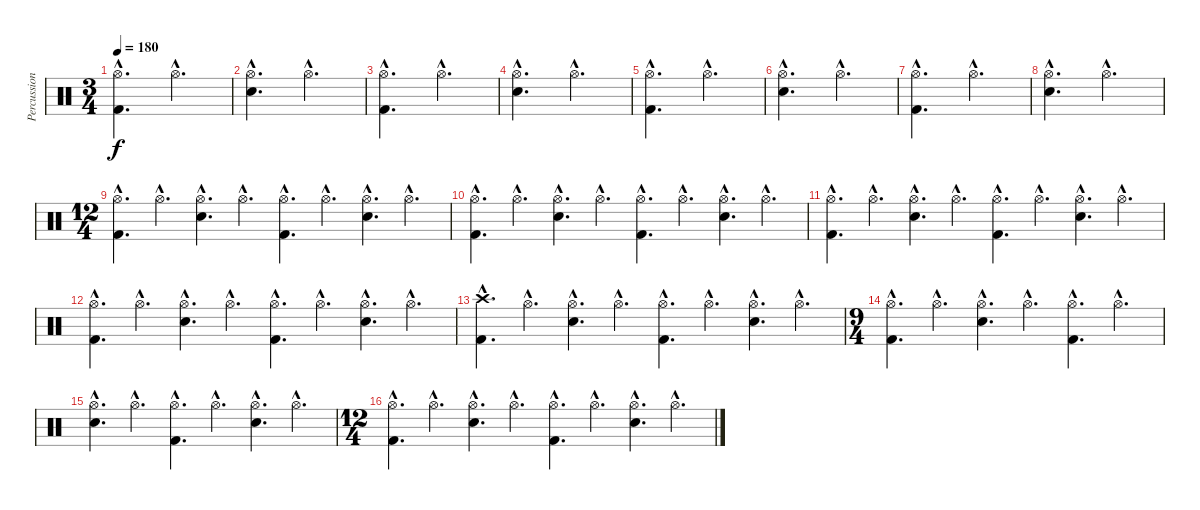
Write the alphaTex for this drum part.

\track ("Percussion" "Percussion") {instrument percussion}
\staff {score}
\articulation defaults
\ts (3 4)
\tempo 180
\clef neutral
\ks c
("Hi-Hat (open)"{hac} "Kick (hit) 2"{hac}).4{d dy f} "Hi-Hat (open)"{hac}.4{d} |
("Hi-Hat (open)"{hac} "Electric Snare (hit)"{hac}).4{d} "Hi-Hat (open)"{hac}.4{d} |
("Hi-Hat (open)"{hac} "Kick (hit) 2"{hac}).4{d} "Hi-Hat (open)"{hac}.4{d} |
("Hi-Hat (open)"{hac} "Electric Snare (hit)"{hac}).4{d} "Hi-Hat (open)"{hac}.4{d} |
("Hi-Hat (open)"{hac} "Kick (hit) 2"{hac}).4{d} "Hi-Hat (open)"{hac}.4{d} |
("Hi-Hat (open)"{hac} "Electric Snare (hit)"{hac}).4{d} "Hi-Hat (open)"{hac}.4{d} |
("Hi-Hat (open)"{hac} "Kick (hit) 2"{hac}).4{d} "Hi-Hat (open)"{hac}.4{d} |
("Hi-Hat (open)"{hac} "Electric Snare (hit)"{hac}).4{d} "Hi-Hat (open)"{hac}.4{d} |
\ts (12 4)
("Hi-Hat (open)"{hac} "Kick (hit) 2"{hac}).4{d} "Hi-Hat (open)"{hac}.4{d} ("Hi-Hat (open)"{hac} "Electric Snare (hit)"{hac}).4{d} "Hi-Hat (open)"{hac}.4{d} ("Hi-Hat (open)"{hac} "Kick (hit) 2"{hac}).4{d} "Hi-Hat (open)"{hac}.4{d} ("Hi-Hat (open)"{hac} "Electric Snare (hit)"{hac}).4{d} "Hi-Hat (open)"{hac}.4{d} |
("Hi-Hat (open)"{hac} "Kick (hit) 2"{hac}).4{d} "Hi-Hat (open)"{hac}.4{d} ("Hi-Hat (open)"{hac} "Electric Snare (hit)"{hac}).4{d} "Hi-Hat (open)"{hac}.4{d} ("Hi-Hat (open)"{hac} "Kick (hit) 2"{hac}).4{d} "Hi-Hat (open)"{hac}.4{d} ("Hi-Hat (open)"{hac} "Electric Snare (hit)"{hac}).4{d} "Hi-Hat (open)"{hac}.4{d} |
("Hi-Hat (open)"{hac} "Kick (hit) 2"{hac}).4{d} "Hi-Hat (open)"{hac}.4{d} ("Hi-Hat (open)"{hac} "Electric Snare (hit)"{hac}).4{d} "Hi-Hat (open)"{hac}.4{d} ("Hi-Hat (open)"{hac} "Kick (hit) 2"{hac}).4{d} "Hi-Hat (open)"{hac}.4{d} ("Hi-Hat (open)"{hac} "Electric Snare (hit)"{hac}).4{d} "Hi-Hat (open)"{hac}.4{d} |
("Hi-Hat (open)"{hac} "Kick (hit) 2"{hac}).4{d} "Hi-Hat (open)"{hac}.4{d} ("Hi-Hat (open)"{hac} "Electric Snare (hit)"{hac}).4{d} "Hi-Hat (open)"{hac}.4{d} ("Hi-Hat (open)"{hac} "Kick (hit) 2"{hac}).4{d} "Hi-Hat (open)"{hac}.4{d} ("Hi-Hat (open)"{hac} "Electric Snare (hit)"{hac}).4{d} "Hi-Hat (open)"{hac}.4{d} |
("Crash high (hit)"{hac} "Kick (hit) 2"{hac}).4{d} "Hi-Hat (open)"{hac}.4{d} ("Hi-Hat (open)"{hac} "Electric Snare (hit)"{hac}).4{d} "Hi-Hat (open)"{hac}.4{d} ("Hi-Hat (open)"{hac} "Kick (hit) 2"{hac}).4{d} "Hi-Hat (open)"{hac}.4{d} ("Hi-Hat (open)"{hac} "Electric Snare (hit)"{hac}).4{d} "Hi-Hat (open)"{hac}.4{d} |
\ts (9 4)
("Hi-Hat (open)"{hac} "Kick (hit) 2"{hac}).4{d} "Hi-Hat (open)"{hac}.4{d} ("Hi-Hat (open)"{hac} "Electric Snare (hit)"{hac}).4{d} "Hi-Hat (open)"{hac}.4{d} ("Hi-Hat (open)"{hac} "Kick (hit) 2"{hac}).4{d} "Hi-Hat (open)"{hac}.4{d} |
("Hi-Hat (open)"{hac} "Electric Snare (hit)"{hac}).4{d} "Hi-Hat (open)"{hac}.4{d} ("Hi-Hat (open)"{hac} "Kick (hit) 2"{hac}).4{d} "Hi-Hat (open)"{hac}.4{d} ("Hi-Hat (open)"{hac} "Electric Snare (hit)"{hac}).4{d} "Hi-Hat (open)"{hac}.4{d} |
\ts (12 4)
("Hi-Hat (open)"{hac} "Kick (hit) 2"{hac}).4{d} "Hi-Hat (open)"{hac}.4{d} ("Hi-Hat (open)"{hac} "Electric Snare (hit)"{hac}).4{d} "Hi-Hat (open)"{hac}.4{d} ("Hi-Hat (open)"{hac} "Kick (hit) 2"{hac}).4{d} "Hi-Hat (open)"{hac}.4{d} ("Hi-Hat (open)"{hac} "Electric Snare (hit)"{hac}).4{d} "Hi-Hat (open)"{hac}.4{d}
